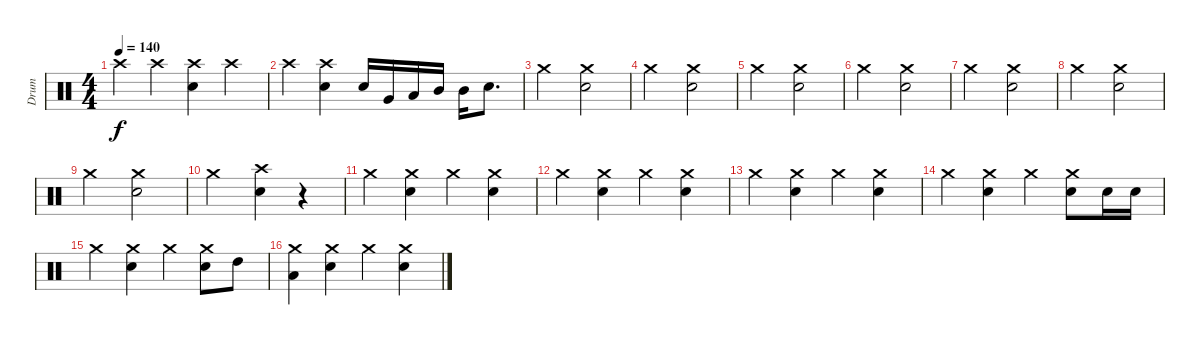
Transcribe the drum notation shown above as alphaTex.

\track ("Drum" "Drum") {instrument percussion}
\staff {score}
\articulation defaults
\ts (4 4)
\tempo 140
\clef neutral
\ks c "Crash high (hit)".4{dy f} "Crash high (hit)".4
("Crash high (hit)" "Snare (hit) 2").4 "Crash high (hit)".4 |
"Crash high (hit)".4 ("Crash high (hit)" "Snare (hit) 2").4 "Snare (hit) 2".16 "Very Low Tom (hit)".16 "Low Tom (hit)".16 "Mid Tom (hit)".16 "Mid Tom (hit)".16 "Snare (hit) 2".8{d} |
"Crash medium (hit)".2 ("Crash medium (hit)" "Snare (hit) 2").2 |
"Crash medium (hit)".2 ("Crash medium (hit)" "Snare (hit) 2").2 |
"Crash medium (hit)".2 ("Crash medium (hit)" "Snare (hit) 2").2 |
"Crash medium (hit)".2 ("Crash medium (hit)" "Snare (hit) 2").2 |
"Crash medium (hit)".2 ("Crash medium (hit)" "Snare (hit) 2").2 |
"Crash medium (hit)".2 ("Crash medium (hit)" "Snare (hit) 2").2 |
"Crash medium (hit)".2 ("Crash medium (hit)" "Snare (hit) 2").2 |
"Crash medium (hit)".2 ("Crash high (hit)" "Snare (hit) 2").4 r.4 |
"Crash medium (hit)".4 ("Crash medium (hit)" "Snare (hit) 2").4 "Crash medium (hit)".4 ("Crash medium (hit)" "Snare (hit) 2").4 |
"Crash medium (hit)".4 ("Crash medium (hit)" "Snare (hit) 2").4 "Crash medium (hit)".4 ("Crash medium (hit)" "Snare (hit) 2").4 |
"Crash medium (hit)".4 ("Crash medium (hit)" "Snare (hit) 2").4 "Crash medium (hit)".4 ("Crash medium (hit)" "Snare (hit) 2").4 |
"Crash medium (hit)".4 ("Crash medium (hit)" "Snare (hit) 2").4 "Crash medium (hit)".4 ("Crash medium (hit)" "Snare (hit) 2").8 "Snare (hit) 2".16 "Snare (hit) 2".16 |
"Crash medium (hit)".4 ("Crash medium (hit)" "Snare (hit) 2").4 "Crash medium (hit)".4 ("Crash medium (hit)" "Snare (hit) 2").8 "High Tom (hit)".8 |
("Crash medium (hit)" "Low Tom (hit)").4 ("Crash medium (hit)" "Snare (hit) 2").4 "Crash medium (hit)".4 ("Crash medium (hit)" "Snare (hit) 2").4
